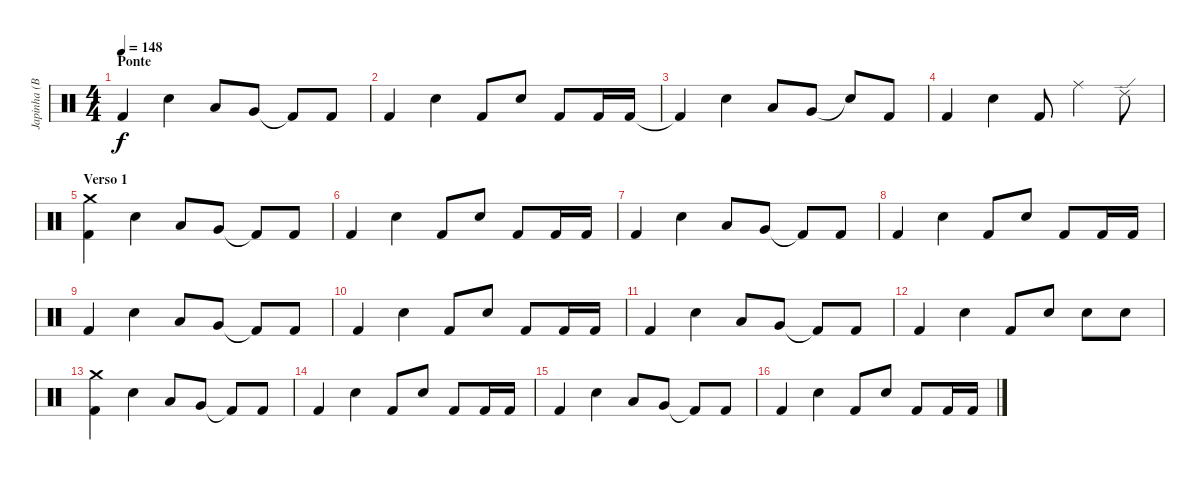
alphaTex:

\track ("Japinha (Bateria)" "Japinha (B") {instrument percussion}
\staff {score}
\articulation defaults
\ts (4 4)
\section ("" "Ponte")
\tempo 148
\clef neutral
\ks c "Kick (hit) 2".4{dy f} "Snare (hit) 2".4 "Low Tom (hit)".8 "Very Low Tom (hit)".8 "Kick (hit) 2"{t}.8 "Kick (hit) 2".8
|
"Kick (hit) 2".4 "Snare (hit) 2".4 "Kick (hit) 2".8 "Snare (hit) 2".8 "Kick (hit) 2".8 "Kick (hit) 2".16 "Kick (hit) 2".16 |
"Kick (hit) 2"{t}.4 "Snare (hit) 2".4 "Low Tom (hit)".8 "Very Low Tom (hit)".8 "Snare (hit)"{t}.8 "Kick (hit) 2".8 |
"Kick (hit) 2".4 "Snare (hit) 2".4 "Kick (hit) 2".8 "Ride (middle)".4 "Ride (edge) 2".8 |
\section ("" "Verso 1")
("Crash medium (hit)" "Kick (hit) 2").4 "Snare (hit) 2".4 "Low Tom (hit)".8 "Very Low Tom (hit)".8 "Kick (hit) 2"{t}.8 "Kick (hit) 2".8 |
"Kick (hit) 2".4 "Snare (hit) 2".4 "Kick (hit) 2".8 "Snare (hit) 2".8 "Kick (hit) 2".8 "Kick (hit) 2".16 "Kick (hit) 2".16 |
"Kick (hit) 2".4 "Snare (hit) 2".4 "Low Tom (hit)".8 "Very Low Tom (hit)".8 "Kick (hit) 2"{t}.8 "Kick (hit) 2".8 |
"Kick (hit) 2".4 "Snare (hit) 2".4 "Kick (hit) 2".8 "Snare (hit) 2".8 "Kick (hit) 2".8 "Kick (hit) 2".16 "Kick (hit) 2".16 |
"Kick (hit) 2".4 "Snare (hit) 2".4 "Low Tom (hit)".8 "Very Low Tom (hit)".8 "Kick (hit) 2"{t}.8 "Kick (hit) 2".8 |
"Kick (hit) 2".4 "Snare (hit) 2".4 "Kick (hit) 2".8 "Snare (hit) 2".8 "Kick (hit) 2".8 "Kick (hit) 2".16 "Kick (hit) 2".16 |
"Kick (hit) 2".4 "Snare (hit) 2".4 "Low Tom (hit)".8 "Very Low Tom (hit)".8 "Kick (hit) 2"{t}.8 "Kick (hit) 2".8 |
"Kick (hit) 2".4 "Snare (hit) 2".4 "Kick (hit) 2".8 "Snare (hit) 2".8 "Snare (hit) 2".8 "Snare (hit) 2".8 |
("Crash medium (hit)" "Kick (hit) 2").4 "Snare (hit) 2".4 "Low Tom (hit)".8 "Very Low Tom (hit)".8 "Kick (hit) 2"{t}.8 "Kick (hit) 2".8 |
"Kick (hit) 2".4 "Snare (hit) 2".4 "Kick (hit) 2".8 "Snare (hit) 2".8 "Kick (hit) 2".8 "Kick (hit) 2".16 "Kick (hit) 2".16 |
"Kick (hit) 2".4 "Snare (hit) 2".4 "Low Tom (hit)".8 "Very Low Tom (hit)".8 "Kick (hit) 2"{t}.8 "Kick (hit) 2".8 |
"Kick (hit) 2".4 "Snare (hit) 2".4 "Kick (hit) 2".8 "Snare (hit) 2".8 "Kick (hit) 2".8 "Kick (hit) 2".16 "Kick (hit) 2".16
